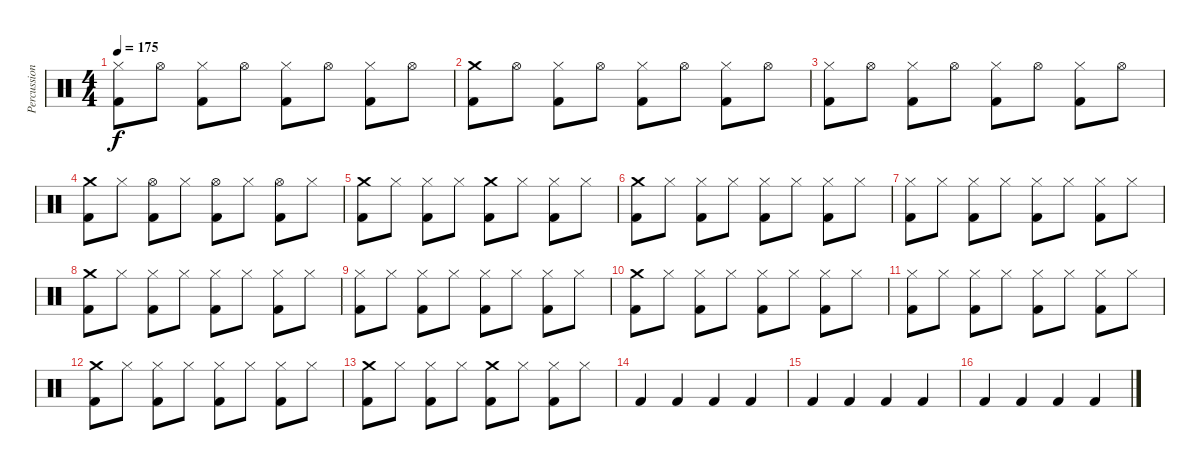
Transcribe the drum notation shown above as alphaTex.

\track ("Percussions" "Percussion") {instrument percussion}
\staff {score}
\articulation defaults
\ts (4 4)
\tempo 175
\clef neutral
\ks c
("Hi-Hat (closed)" "Kick (hit) 2").8{dy f} "Hi-Hat (open)".8 ("Hi-Hat (closed)" "Kick (hit) 2").8 "Hi-Hat (open)".8 ("Hi-Hat (closed)" "Kick (hit) 2").8 "Hi-Hat (open)".8 ("Hi-Hat (closed)" "Kick (hit) 2").8 "Hi-Hat (open)".8 |
("Crash medium (hit)" "Kick (hit) 2").8 "Hi-Hat (open)".8 ("Hi-Hat (closed)" "Kick (hit) 2").8 "Hi-Hat (open)".8 ("Hi-Hat (closed)" "Kick (hit) 2").8 "Hi-Hat (open)".8 ("Hi-Hat (closed)" "Kick (hit) 2").8 "Hi-Hat (open)".8 |
("Hi-Hat (closed)" "Kick (hit) 2").8 "Hi-Hat (open)".8 ("Hi-Hat (closed)" "Kick (hit) 2").8 "Hi-Hat (open)".8 ("Hi-Hat (closed)" "Kick (hit) 2").8 "Hi-Hat (open)".8 ("Hi-Hat (closed)" "Kick (hit) 2").8 "Hi-Hat (open)".8 |
("Crash medium (hit)" "Kick (hit) 2").8 "Hi-Hat (closed)".8 ("Hi-Hat (open)" "Kick (hit) 2").8 "Hi-Hat (closed)".8 ("Hi-Hat (open)" "Kick (hit) 2").8 "Hi-Hat (closed)".8 ("Hi-Hat (open)" "Kick (hit) 2").8 "Hi-Hat (closed)".8 |
("Crash medium (hit)" "Kick (hit) 2").8 "Hi-Hat (closed)".8 ("Hi-Hat (closed)" "Kick (hit) 2").8 "Hi-Hat (closed)".8 ("Crash medium (hit)" "Kick (hit) 2").8 "Hi-Hat (closed)".8 ("Hi-Hat (closed)" "Kick (hit) 2").8 "Hi-Hat (closed)".8 |
("Crash medium (hit)" "Kick (hit) 2").8 "Hi-Hat (closed)".8 ("Hi-Hat (closed)" "Kick (hit) 2").8 "Hi-Hat (closed)".8 ("Hi-Hat (closed)" "Kick (hit) 2").8 "Hi-Hat (closed)".8 ("Hi-Hat (closed)" "Kick (hit) 2").8 "Hi-Hat (closed)".8 |
("Hi-Hat (closed)" "Kick (hit) 2").8 "Hi-Hat (closed)".8 ("Hi-Hat (closed)" "Kick (hit) 2").8 "Hi-Hat (closed)".8 ("Hi-Hat (closed)" "Kick (hit) 2").8 "Hi-Hat (closed)".8 ("Hi-Hat (closed)" "Kick (hit) 2").8 "Hi-Hat (closed)".8 |
("Crash medium (hit)" "Kick (hit) 2").8 "Hi-Hat (closed)".8 ("Hi-Hat (closed)" "Kick (hit) 2").8 "Hi-Hat (closed)".8 ("Hi-Hat (closed)" "Kick (hit) 2").8 "Hi-Hat (closed)".8 ("Hi-Hat (closed)" "Kick (hit) 2").8 "Hi-Hat (closed)".8 |
("Hi-Hat (closed)" "Kick (hit) 2").8 "Hi-Hat (closed)".8 ("Hi-Hat (closed)" "Kick (hit) 2").8 "Hi-Hat (closed)".8 ("Hi-Hat (closed)" "Kick (hit) 2").8 "Hi-Hat (closed)".8 ("Hi-Hat (closed)" "Kick (hit) 2").8 "Hi-Hat (closed)".8 |
("Crash medium (hit)" "Kick (hit) 2").8 "Hi-Hat (closed)".8 ("Hi-Hat (closed)" "Kick (hit) 2").8 "Hi-Hat (closed)".8 ("Hi-Hat (closed)" "Kick (hit) 2").8 "Hi-Hat (closed)".8 ("Hi-Hat (closed)" "Kick (hit) 2").8 "Hi-Hat (closed)".8 |
("Hi-Hat (closed)" "Kick (hit) 2").8 "Hi-Hat (closed)".8 ("Hi-Hat (closed)" "Kick (hit) 2").8 "Hi-Hat (closed)".8 ("Hi-Hat (closed)" "Kick (hit) 2").8 "Hi-Hat (closed)".8 ("Hi-Hat (closed)" "Kick (hit) 2").8 "Hi-Hat (closed)".8 |
("Crash medium (hit)" "Kick (hit) 2").8 "Hi-Hat (closed)".8 ("Hi-Hat (closed)" "Kick (hit) 2").8 "Hi-Hat (closed)".8 ("Hi-Hat (closed)" "Kick (hit) 2").8 "Hi-Hat (closed)".8 ("Hi-Hat (closed)" "Kick (hit) 2").8 "Hi-Hat (closed)".8 |
("Crash medium (hit)" "Kick (hit) 2").8 "Hi-Hat (closed)".8 ("Hi-Hat (closed)" "Kick (hit) 2").8 "Hi-Hat (closed)".8 ("Crash medium (hit)" "Kick (hit) 2").8 "Hi-Hat (closed)".8 ("Hi-Hat (closed)" "Kick (hit) 2").8 "Hi-Hat (closed)".8 |
"Kick (hit) 2".4 "Kick (hit) 2".4 "Kick (hit) 2".4 "Kick (hit) 2".4 |
"Kick (hit) 2".4 "Kick (hit) 2".4 "Kick (hit) 2".4 "Kick (hit) 2".4 |
"Kick (hit) 2".4 "Kick (hit) 2".4 "Kick (hit) 2".4 "Kick (hit) 2".4
